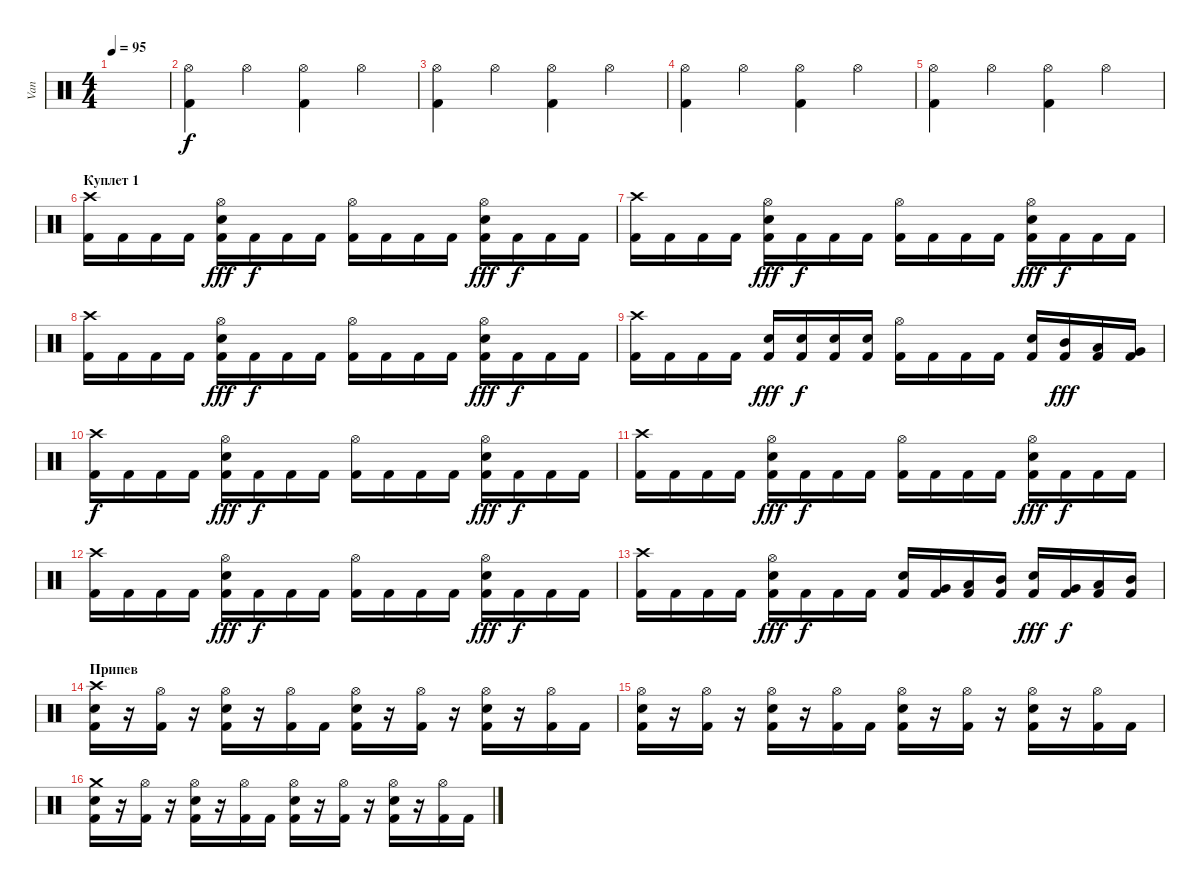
\track ("Van" "Van") {instrument percussion}
\staff {score}
\articulation defaults
\ts (4 4)
\tempo 95
\clef neutral
\ks c
|
\section ("" "")
("Hi-Hat (open)" "Kick (hit) 2").4 "Hi-Hat (open)".4 ("Hi-Hat (open)" "Kick (hit) 2").4 "Hi-Hat (open)".4 |
("Hi-Hat (open)" "Kick (hit) 2").4 "Hi-Hat (open)".4 ("Hi-Hat (open)" "Kick (hit) 2").4 "Hi-Hat (open)".4 |
("Hi-Hat (open)" "Kick (hit) 2").4 "Hi-Hat (open)".4 ("Hi-Hat (open)" "Kick (hit) 2").4 "Hi-Hat (open)".4 |
("Hi-Hat (open)" "Kick (hit) 2").4 "Hi-Hat (open)".4 ("Hi-Hat (open)" "Kick (hit) 2").4 "Hi-Hat (open)".4 |
\section ("" "Куплет 1")
("Crash high (hit)" "Kick (hit) 2").16 "Kick (hit) 2".16 "Kick (hit) 2".16 "Kick (hit) 2".16 ("Hi-Hat (open)" "Electric Snare (hit)" "Kick (hit) 2").16{dy fff} "Kick (hit) 2".16{dy f} "Kick (hit) 2".16 "Kick (hit) 2".16 ("Hi-Hat (open)" "Kick (hit) 2").16 "Kick (hit) 2".16 "Kick (hit) 2".16 "Kick (hit) 2".16 ("Hi-Hat (open)" "Electric Snare (hit)" "Kick (hit) 2").16{dy fff} "Kick (hit) 2".16{dy f} "Kick (hit) 2".16 "Kick (hit) 2".16 |
("Crash high (hit)" "Kick (hit) 2").16 "Kick (hit) 2".16 "Kick (hit) 2".16 "Kick (hit) 2".16 ("Hi-Hat (open)" "Electric Snare (hit)" "Kick (hit) 2").16{dy fff} "Kick (hit) 2".16{dy f} "Kick (hit) 2".16 "Kick (hit) 2".16 ("Hi-Hat (open)" "Kick (hit) 2").16 "Kick (hit) 2".16 "Kick (hit) 2".16 "Kick (hit) 2".16 ("Hi-Hat (open)" "Electric Snare (hit)" "Kick (hit) 2").16{dy fff} "Kick (hit) 2".16{dy f} "Kick (hit) 2".16 "Kick (hit) 2".16 |
("Crash high (hit)" "Kick (hit) 2").16 "Kick (hit) 2".16 "Kick (hit) 2".16 "Kick (hit) 2".16 ("Hi-Hat (open)" "Electric Snare (hit)" "Kick (hit) 2").16{dy fff} "Kick (hit) 2".16{dy f} "Kick (hit) 2".16 "Kick (hit) 2".16 ("Hi-Hat (open)" "Kick (hit) 2").16 "Kick (hit) 2".16 "Kick (hit) 2".16 "Kick (hit) 2".16 ("Hi-Hat (open)" "Electric Snare (hit)" "Kick (hit) 2").16{dy fff} "Kick (hit) 2".16{dy f} "Kick (hit) 2".16 "Kick (hit) 2".16 |
("Crash high (hit)" "Kick (hit) 2").16 "Kick (hit) 2".16 "Kick (hit) 2".16 "Kick (hit) 2".16 ("Electric Snare (hit)" "Kick (hit) 2").16{dy fff} ("Electric Snare (hit)" "Kick (hit) 2").16{dy f} ("Electric Snare (hit)" "Kick (hit) 2").16 ("Electric Snare (hit)" "Kick (hit) 2").16 ("Hi-Hat (open)" "Kick (hit) 2").16 "Kick (hit) 2".16 "Kick (hit) 2".16 "Kick (hit) 2".16 ("Electric Snare (hit)" "Kick (hit) 2").16 ("Mid Tom (hit)" "Kick (hit) 2").16{dy fff} ("Low Tom (hit)" "Kick (hit) 2").16 ("Very Low Tom (hit)" "Kick (hit) 2").16 |
("Crash high (hit)" "Kick (hit) 2").16{dy f} "Kick (hit) 2".16 "Kick (hit) 2".16 "Kick (hit) 2".16 ("Hi-Hat (open)" "Electric Snare (hit)" "Kick (hit) 2").16{dy fff} "Kick (hit) 2".16{dy f} "Kick (hit) 2".16 "Kick (hit) 2".16 ("Hi-Hat (open)" "Kick (hit) 2").16 "Kick (hit) 2".16 "Kick (hit) 2".16 "Kick (hit) 2".16 ("Hi-Hat (open)" "Electric Snare (hit)" "Kick (hit) 2").16{dy fff} "Kick (hit) 2".16{dy f} "Kick (hit) 2".16 "Kick (hit) 2".16 |
("Crash high (hit)" "Kick (hit) 2").16 "Kick (hit) 2".16 "Kick (hit) 2".16 "Kick (hit) 2".16 ("Hi-Hat (open)" "Electric Snare (hit)" "Kick (hit) 2").16{dy fff} "Kick (hit) 2".16{dy f} "Kick (hit) 2".16 "Kick (hit) 2".16 ("Hi-Hat (open)" "Kick (hit) 2").16 "Kick (hit) 2".16 "Kick (hit) 2".16 "Kick (hit) 2".16 ("Hi-Hat (open)" "Electric Snare (hit)" "Kick (hit) 2").16{dy fff} "Kick (hit) 2".16{dy f} "Kick (hit) 2".16 "Kick (hit) 2".16 |
("Crash high (hit)" "Kick (hit) 2").16 "Kick (hit) 2".16 "Kick (hit) 2".16 "Kick (hit) 2".16 ("Hi-Hat (open)" "Electric Snare (hit)" "Kick (hit) 2").16{dy fff} "Kick (hit) 2".16{dy f} "Kick (hit) 2".16 "Kick (hit) 2".16 ("Hi-Hat (open)" "Kick (hit) 2").16 "Kick (hit) 2".16 "Kick (hit) 2".16 "Kick (hit) 2".16 ("Hi-Hat (open)" "Electric Snare (hit)" "Kick (hit) 2").16{dy fff} "Kick (hit) 2".16{dy f} "Kick (hit) 2".16 "Kick (hit) 2".16 |
("Crash high (hit)" "Kick (hit) 2").16 "Kick (hit) 2".16 "Kick (hit) 2".16 "Kick (hit) 2".16 ("Hi-Hat (open)" "Electric Snare (hit)" "Kick (hit) 2").16{dy fff} "Kick (hit) 2".16{dy f} "Kick (hit) 2".16 "Kick (hit) 2".16 ("Electric Snare (hit)" "Kick (hit) 2").16 ("Very Low Tom (hit)" "Kick (hit) 2").16 ("Low Tom (hit)" "Kick (hit) 2").16 ("Mid Tom (hit)" "Kick (hit) 2").16 ("Electric Snare (hit)" "Kick (hit) 2").16{dy fff} ("Very Low Tom (hit)" "Kick (hit) 2").16{dy f} ("Low Tom (hit)" "Kick (hit) 2").16 ("Mid Tom (hit)" "Kick (hit) 2").16 |
\section ("" "Припев")
("Crash high (hit)" "Electric Snare (hit)" "Kick (hit) 2").16 r.16 ("Hi-Hat (open)" "Kick (hit) 2").16 r.16 ("Hi-Hat (open)" "Electric Snare (hit)" "Kick (hit) 2").16 r.16 ("Hi-Hat (open)" "Kick (hit) 2").16 "Kick (hit) 2".16 ("Hi-Hat (open)" "Electric Snare (hit)" "Kick (hit) 2").16 r.16 ("Hi-Hat (open)" "Kick (hit) 2").16 r.16 ("Hi-Hat (open)" "Electric Snare (hit)" "Kick (hit) 2").16 r.16 ("Hi-Hat (open)" "Kick (hit) 2").16 "Kick (hit) 2".16 |
("Hi-Hat (open)" "Electric Snare (hit)" "Kick (hit) 2").16 r.16 ("Hi-Hat (open)" "Kick (hit) 2").16 r.16 ("Hi-Hat (open)" "Electric Snare (hit)" "Kick (hit) 2").16 r.16 ("Hi-Hat (open)" "Kick (hit) 2").16 "Kick (hit) 2".16 ("Hi-Hat (open)" "Electric Snare (hit)" "Kick (hit) 2").16 r.16 ("Hi-Hat (open)" "Kick (hit) 2").16 r.16 ("Hi-Hat (open)" "Electric Snare (hit)" "Kick (hit) 2").16 r.16 ("Hi-Hat (open)" "Kick (hit) 2").16 "Kick (hit) 2".16 |
("Crash medium (hit)" "Electric Snare (hit)" "Kick (hit) 2").16 r.16 ("Hi-Hat (open)" "Kick (hit) 2").16 r.16 ("Hi-Hat (open)" "Electric Snare (hit)" "Kick (hit) 2").16 r.16 ("Hi-Hat (open)" "Kick (hit) 2").16 "Kick (hit) 2".16 ("Hi-Hat (open)" "Electric Snare (hit)" "Kick (hit) 2").16 r.16 ("Hi-Hat (open)" "Kick (hit) 2").16 r.16 ("Hi-Hat (open)" "Electric Snare (hit)" "Kick (hit) 2").16 r.16 ("Hi-Hat (open)" "Kick (hit) 2").16 "Kick (hit) 2".16
